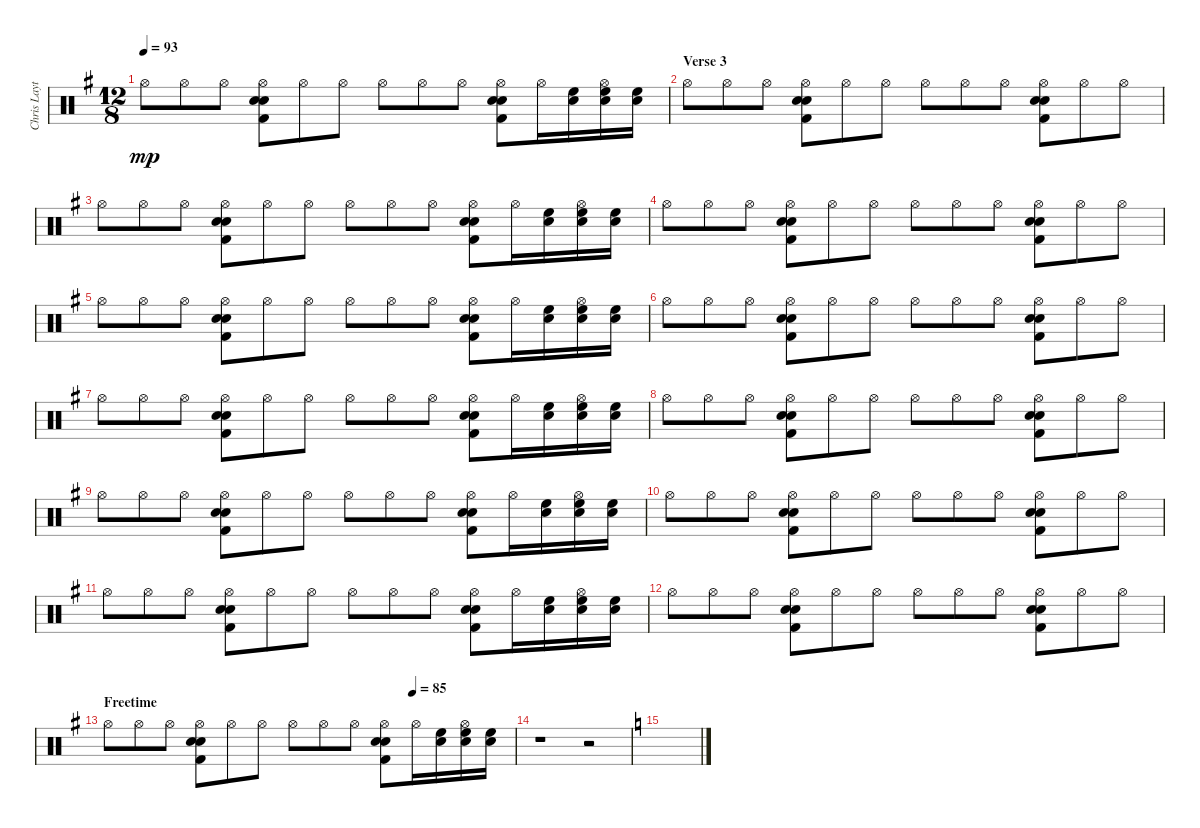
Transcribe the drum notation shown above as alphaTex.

\track ("Chris Layton" "Chris Layt") {instrument percussion}
\staff {score}
\articulation defaults
\ts (12 8)
\tempo 93
\clef neutral
\ks g "Hi-Hat (open)".8{dy mp} "Hi-Hat (open)".8 "Hi-Hat (open)".8
("Electric Snare (hit)" "Electric Snare (hit)" "Kick (hit) 2" "Hi-Hat (open)").8 "Hi-Hat (open)".8 "Hi-Hat (open)".8 "Hi-Hat (open)".8 "Hi-Hat (open)".8 "Hi-Hat (open)".8 ("Kick (hit) 2" "Electric Snare (hit)" "Electric Snare (hit)" "Hi-Hat (open)").8 "Hi-Hat (open)".16 ("Electric Snare (hit)" "High Floor Tom (hit)").16 ("Electric Snare (hit)" "High Floor Tom (hit)" "Hi-Hat (open)").16 ("Electric Snare (hit)" "High Floor Tom (hit)").16 |
\section ("" "Verse 3")
"Hi-Hat (open)".8 "Hi-Hat (open)".8 "Hi-Hat (open)".8 ("Electric Snare (hit)" "Electric Snare (hit)" "Kick (hit) 2" "Hi-Hat (open)").8 "Hi-Hat (open)".8 "Hi-Hat (open)".8 "Hi-Hat (open)".8 "Hi-Hat (open)".8 "Hi-Hat (open)".8 ("Kick (hit) 2" "Electric Snare (hit)" "Electric Snare (hit)" "Hi-Hat (open)").8 "Hi-Hat (open)".8 "Hi-Hat (open)".8 |
"Hi-Hat (open)".8 "Hi-Hat (open)".8 "Hi-Hat (open)".8 ("Electric Snare (hit)" "Electric Snare (hit)" "Kick (hit) 2" "Hi-Hat (open)").8 "Hi-Hat (open)".8 "Hi-Hat (open)".8 "Hi-Hat (open)".8 "Hi-Hat (open)".8 "Hi-Hat (open)".8 ("Kick (hit) 2" "Electric Snare (hit)" "Electric Snare (hit)" "Hi-Hat (open)").8 "Hi-Hat (open)".16 ("Electric Snare (hit)" "High Floor Tom (hit)").16 ("Electric Snare (hit)" "High Floor Tom (hit)" "Hi-Hat (open)").16 ("Electric Snare (hit)" "High Floor Tom (hit)").16 |
"Hi-Hat (open)".8 "Hi-Hat (open)".8 "Hi-Hat (open)".8 ("Electric Snare (hit)" "Electric Snare (hit)" "Kick (hit) 2" "Hi-Hat (open)").8 "Hi-Hat (open)".8 "Hi-Hat (open)".8 "Hi-Hat (open)".8 "Hi-Hat (open)".8 "Hi-Hat (open)".8 ("Kick (hit) 2" "Electric Snare (hit)" "Electric Snare (hit)" "Hi-Hat (open)").8 "Hi-Hat (open)".8 "Hi-Hat (open)".8 |
"Hi-Hat (open)".8 "Hi-Hat (open)".8 "Hi-Hat (open)".8 ("Electric Snare (hit)" "Electric Snare (hit)" "Kick (hit) 2" "Hi-Hat (open)").8 "Hi-Hat (open)".8 "Hi-Hat (open)".8 "Hi-Hat (open)".8 "Hi-Hat (open)".8 "Hi-Hat (open)".8 ("Kick (hit) 2" "Electric Snare (hit)" "Electric Snare (hit)" "Hi-Hat (open)").8 "Hi-Hat (open)".16 ("Electric Snare (hit)" "High Floor Tom (hit)").16 ("Electric Snare (hit)" "High Floor Tom (hit)" "Hi-Hat (open)").16 ("Electric Snare (hit)" "High Floor Tom (hit)").16 |
"Hi-Hat (open)".8 "Hi-Hat (open)".8 "Hi-Hat (open)".8 ("Electric Snare (hit)" "Electric Snare (hit)" "Kick (hit) 2" "Hi-Hat (open)").8 "Hi-Hat (open)".8 "Hi-Hat (open)".8 "Hi-Hat (open)".8 "Hi-Hat (open)".8 "Hi-Hat (open)".8 ("Kick (hit) 2" "Electric Snare (hit)" "Electric Snare (hit)" "Hi-Hat (open)").8 "Hi-Hat (open)".8 "Hi-Hat (open)".8 |
"Hi-Hat (open)".8 "Hi-Hat (open)".8 "Hi-Hat (open)".8 ("Electric Snare (hit)" "Electric Snare (hit)" "Kick (hit) 2" "Hi-Hat (open)").8 "Hi-Hat (open)".8 "Hi-Hat (open)".8 "Hi-Hat (open)".8 "Hi-Hat (open)".8 "Hi-Hat (open)".8 ("Kick (hit) 2" "Electric Snare (hit)" "Electric Snare (hit)" "Hi-Hat (open)").8 "Hi-Hat (open)".16 ("Electric Snare (hit)" "High Floor Tom (hit)").16 ("Electric Snare (hit)" "High Floor Tom (hit)" "Hi-Hat (open)").16 ("Electric Snare (hit)" "High Floor Tom (hit)").16 |
"Hi-Hat (open)".8 "Hi-Hat (open)".8 "Hi-Hat (open)".8 ("Electric Snare (hit)" "Electric Snare (hit)" "Kick (hit) 2" "Hi-Hat (open)").8 "Hi-Hat (open)".8 "Hi-Hat (open)".8 "Hi-Hat (open)".8 "Hi-Hat (open)".8 "Hi-Hat (open)".8 ("Kick (hit) 2" "Electric Snare (hit)" "Electric Snare (hit)" "Hi-Hat (open)").8 "Hi-Hat (open)".8 "Hi-Hat (open)".8 |
"Hi-Hat (open)".8 "Hi-Hat (open)".8 "Hi-Hat (open)".8 ("Electric Snare (hit)" "Electric Snare (hit)" "Kick (hit) 2" "Hi-Hat (open)").8 "Hi-Hat (open)".8 "Hi-Hat (open)".8 "Hi-Hat (open)".8 "Hi-Hat (open)".8 "Hi-Hat (open)".8 ("Kick (hit) 2" "Electric Snare (hit)" "Electric Snare (hit)" "Hi-Hat (open)").8 "Hi-Hat (open)".16 ("Electric Snare (hit)" "High Floor Tom (hit)").16 ("Electric Snare (hit)" "High Floor Tom (hit)" "Hi-Hat (open)").16 ("Electric Snare (hit)" "High Floor Tom (hit)").16 |
"Hi-Hat (open)".8 "Hi-Hat (open)".8 "Hi-Hat (open)".8 ("Electric Snare (hit)" "Electric Snare (hit)" "Kick (hit) 2" "Hi-Hat (open)").8 "Hi-Hat (open)".8 "Hi-Hat (open)".8 "Hi-Hat (open)".8 "Hi-Hat (open)".8 "Hi-Hat (open)".8 ("Kick (hit) 2" "Electric Snare (hit)" "Electric Snare (hit)" "Hi-Hat (open)").8 "Hi-Hat (open)".8 "Hi-Hat (open)".8 |
"Hi-Hat (open)".8 "Hi-Hat (open)".8 "Hi-Hat (open)".8 ("Electric Snare (hit)" "Electric Snare (hit)" "Kick (hit) 2" "Hi-Hat (open)").8 "Hi-Hat (open)".8 "Hi-Hat (open)".8 "Hi-Hat (open)".8 "Hi-Hat (open)".8 "Hi-Hat (open)".8 ("Kick (hit) 2" "Electric Snare (hit)" "Electric Snare (hit)" "Hi-Hat (open)").8 "Hi-Hat (open)".16 ("Electric Snare (hit)" "High Floor Tom (hit)").16 ("Electric Snare (hit)" "High Floor Tom (hit)" "Hi-Hat (open)").16 ("Electric Snare (hit)" "High Floor Tom (hit)").16 |
"Hi-Hat (open)".8 "Hi-Hat (open)".8 "Hi-Hat (open)".8 ("Electric Snare (hit)" "Electric Snare (hit)" "Kick (hit) 2" "Hi-Hat (open)").8 "Hi-Hat (open)".8 "Hi-Hat (open)".8 "Hi-Hat (open)".8 "Hi-Hat (open)".8 "Hi-Hat (open)".8 ("Kick (hit) 2" "Electric Snare (hit)" "Electric Snare (hit)" "Hi-Hat (open)").8 "Hi-Hat (open)".8 "Hi-Hat (open)".8 |
\section ("" "Freetime")
\tempo (85 0.75)
"Hi-Hat (open)".8 "Hi-Hat (open)".8 "Hi-Hat (open)".8 ("Electric Snare (hit)" "Electric Snare (hit)" "Kick (hit) 2" "Hi-Hat (open)").8 "Hi-Hat (open)".8 "Hi-Hat (open)".8 "Hi-Hat (open)".8 "Hi-Hat (open)".8 "Hi-Hat (open)".8 ("Kick (hit) 2" "Electric Snare (hit)" "Electric Snare (hit)" "Hi-Hat (open)").8 "Hi-Hat (open)".16 ("Electric Snare (hit)" "High Floor Tom (hit)").16 ("Electric Snare (hit)" "High Floor Tom (hit)" "Hi-Hat (open)").16 ("Electric Snare (hit)" "High Floor Tom (hit)").16 |
r.1 r.2 |
\ks c
